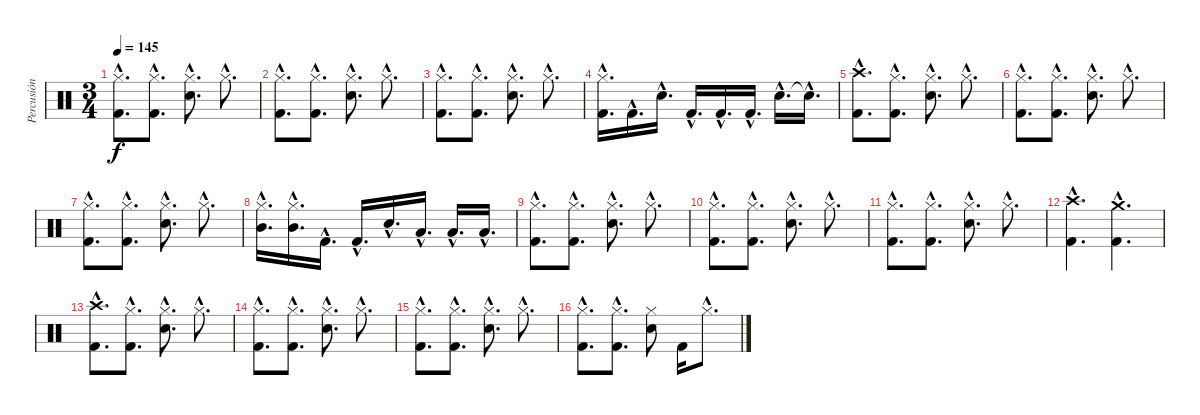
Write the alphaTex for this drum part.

\track ("Percusión" "Percusión") {instrument percussion}
\staff {score}
\articulation defaults
\ts (3 4)
\tempo 145
\clef neutral
\ks c
("Hi-Hat (closed)"{hac} "Kick (hit) 2"{hac}).8{d dy f} ("Hi-Hat (closed)"{hac} "Kick (hit) 2"{hac}).8{d} ("Hi-Hat (closed)"{hac} "Electric Snare (hit)"{hac}).8{d} "Hi-Hat (closed)"{hac}.8{d} |
("Hi-Hat (closed)"{hac} "Kick (hit) 2"{hac}).8{d} ("Hi-Hat (closed)"{hac} "Kick (hit) 2"{hac}).8{d} ("Hi-Hat (closed)"{hac} "Electric Snare (hit)"{hac}).8{d} "Hi-Hat (closed)"{hac}.8{d} |
("Hi-Hat (closed)"{hac} "Kick (hit) 2"{hac}).8{d} ("Hi-Hat (closed)"{hac} "Kick (hit) 2"{hac}).8{d} ("Hi-Hat (closed)"{hac} "Electric Snare (hit)"{hac}).8{d} "Hi-Hat (closed)"{hac}.8{d} |
("Hi-Hat (closed)"{hac} "Kick (hit) 2"{hac}).16{d} "Kick (hit) 2"{hac}.16{d} "Electric Snare (hit)"{hac}.16{d} "Kick (hit) 2"{hac}.16{d} "Kick (hit) 2"{hac}.16{d} "Kick (hit) 2"{hac}.16{d} "Electric Snare (hit)"{hac}.16{d} "Snare (hit)"{hac t}.16{d} |
("Crash high (hit)"{hac} "Kick (hit) 2"{hac}).8{d} ("Hi-Hat (closed)"{hac} "Kick (hit) 2"{hac}).8{d} ("Hi-Hat (closed)"{hac} "Electric Snare (hit)"{hac}).8{d} "Hi-Hat (closed)"{hac}.8{d} |
("Hi-Hat (closed)"{hac} "Kick (hit) 2"{hac}).8{d} ("Hi-Hat (closed)"{hac} "Kick (hit) 2"{hac}).8{d} ("Hi-Hat (closed)"{hac} "Electric Snare (hit)"{hac}).8{d} "Hi-Hat (closed)"{hac}.8{d} |
("Hi-Hat (closed)"{hac} "Kick (hit) 2"{hac}).8{d} ("Hi-Hat (closed)"{hac} "Kick (hit) 2"{hac}).8{d} ("Hi-Hat (closed)"{hac} "Electric Snare (hit)"{hac}).8{d} "Hi-Hat (closed)"{hac}.8{d} |
("Hi-Hat (closed)"{hac} "Mid Tom (hit)"{hac}).16{d} ("Hi-Hat (closed)"{hac} "Mid Tom (hit)"{hac}).16{d} "Kick (hit) 2"{hac}.16{d} "Kick (hit) 2"{hac}.16{d} "Electric Snare (hit)"{hac}.16{d} "Low Tom (hit)"{hac}.16{d} "Low Tom (hit)"{hac}.16{d} "Low Floor Tom (hit)"{hac}.16{d} |
("Hi-Hat (closed)"{hac} "Kick (hit) 2"{hac}).8{d} ("Hi-Hat (closed)"{hac} "Kick (hit) 2"{hac}).8{d} ("Hi-Hat (closed)"{hac} "Electric Snare (hit)"{hac}).8{d} "Hi-Hat (closed)"{hac}.8{d} |
("Hi-Hat (closed)"{hac} "Kick (hit) 2"{hac}).8{d} ("Hi-Hat (closed)"{hac} "Kick (hit) 2"{hac}).8{d} ("Hi-Hat (closed)"{hac} "Electric Snare (hit)"{hac}).8{d} "Hi-Hat (closed)"{hac}.8{d} |
("Hi-Hat (closed)"{hac} "Kick (hit) 2"{hac}).8{d} ("Hi-Hat (closed)"{hac} "Kick (hit) 2"{hac}).8{d} ("Hi-Hat (closed)"{hac} "Electric Snare (hit)"{hac}).8{d} "Hi-Hat (closed)"{hac}.8{d} |
("Crash high (hit)"{hac} "Kick (hit) 2"{hac}).4{d} ("Crash medium (hit)"{hac} "Kick (hit) 2"{hac}).4{d} |
("Crash high (hit)"{hac} "Kick (hit) 2"{hac}).8{d} ("Hi-Hat (closed)"{hac} "Kick (hit) 2"{hac}).8{d} ("Hi-Hat (closed)"{hac} "Electric Snare (hit)"{hac}).8{d} "Hi-Hat (closed)"{hac}.8{d} |
("Hi-Hat (closed)"{hac} "Kick (hit) 2"{hac}).8{d} ("Hi-Hat (closed)"{hac} "Kick (hit) 2"{hac}).8{d} ("Hi-Hat (closed)"{hac} "Electric Snare (hit)"{hac}).8{d} "Hi-Hat (closed)"{hac}.8{d} |
("Hi-Hat (closed)"{hac} "Kick (hit) 2"{hac}).8{d} ("Hi-Hat (closed)"{hac} "Kick (hit) 2"{hac}).8{d} ("Hi-Hat (closed)"{hac} "Electric Snare (hit)"{hac}).8{d} "Hi-Hat (closed)"{hac}.8{d} |
("Hi-Hat (closed)"{hac} "Kick (hit) 2"{hac}).8{d} ("Hi-Hat (closed)"{hac} "Kick (hit) 2"{hac}).8{d} ("Hi-Hat (closed)" "Electric Snare (hit)").8 "Kick (hit) 2".16 "Hi-Hat (closed)"{hac}.8{d}
